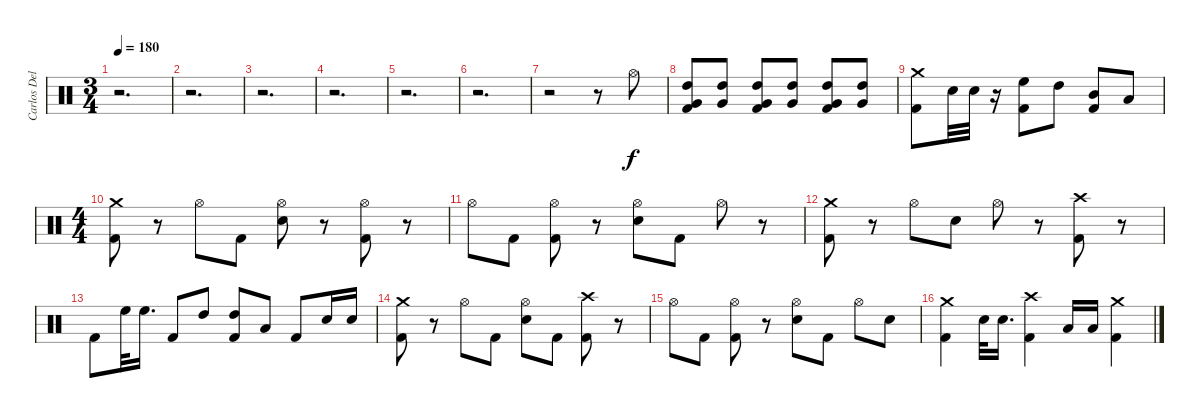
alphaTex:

\track ("Carlos Delgado" "Carlos Del") {instrument percussion}
\staff {score}
\articulation defaults
\ts (3 4)
\tempo 180
\clef neutral
\ks c
r.2{d dy f} |
r.2{d} |
r.2{d} |
r.2{d} |
r.2{d} |
r.2{d} |
r.2 r.8 "Hi-Hat (open)".8 |
("Very Low Tom (hit)" "High Tom (hit)" "Kick (hit) 2").8 ("High Tom (hit)" "Very Low Tom (hit)").8 ("Very Low Tom (hit)" "High Tom (hit)" "Kick (hit) 2").8 ("Very Low Tom (hit)" "High Tom (hit)").8 ("Very Low Tom (hit)" "High Tom (hit)" "Kick (hit) 2").8 ("High Tom (hit)" "Very Low Tom (hit)").8 |
("Crash medium (hit)" "Kick (hit) 2").8 "Electric Snare (hit)".32 "Electric Snare (hit)".32 r.16 ("High Floor Tom (hit)" "Kick (hit) 2").8 "High Tom (hit)".8 ("Mid Tom (hit)" "Kick (hit) 2").8 "Low Tom (hit)".8 |
\ts (4 4)
("Kick (hit) 2" "Crash medium (hit)").8 r.8 "Hi-Hat (open)".8 "Kick (hit) 2".8 ("Electric Snare (hit)" "Hi-Hat (open)").8 r.8 ("Hi-Hat (open)" "Kick (hit) 2").8 r.8 |
"Hi-Hat (open)".8 "Kick (hit) 2".8 ("Hi-Hat (open)" "Kick (hit) 2").8 r.8 ("Hi-Hat (open)" "Electric Snare (hit)").8 "Kick (hit) 2".8 "Hi-Hat (open)".8 r.8 |
("Crash medium (hit)" "Kick (hit) 2").8 r.8 "Hi-Hat (open)".8 "Electric Snare (hit)".8 "Hi-Hat (open)".8 r.8 ("Crash high (hit)" "Kick (hit) 2").8 r.8 |
"Kick (hit) 2".8 "High Floor Tom (hit)".32 "High Floor Tom (hit)".16{d} "Kick (hit) 2".8 "High Tom (hit)".8 ("Kick (hit) 2" "High Tom (hit)").8 "Low Tom (hit)".8 "Kick (hit) 2".8 "Electric Snare (hit)".16 "Electric Snare (hit)".16 |
("Crash medium (hit)" "Kick (hit) 2").8 r.8 "Hi-Hat (open)".8 "Kick (hit) 2".8 ("Electric Snare (hit)" "Hi-Hat (open)").8 "Kick (hit) 2".8 ("Kick (hit) 2" "Crash high (hit)").8 r.8 |
"Hi-Hat (open)".8 "Kick (hit) 2".8 ("Hi-Hat (open)" "Kick (hit) 2").8 r.8 ("Hi-Hat (open)" "Electric Snare (hit)").8 "Kick (hit) 2".8 "Hi-Hat (open)".8 "Electric Snare (hit)".8 |
("Crash medium (hit)" "Kick (hit) 2").4 "Electric Snare (hit)".32 "Electric Snare (hit)".16{d} ("Crash high (hit)" "Kick (hit) 2").4 "Low Tom (hit)".16 "Low Tom (hit)".16 ("Kick (hit) 2" "Crash medium (hit)").4
